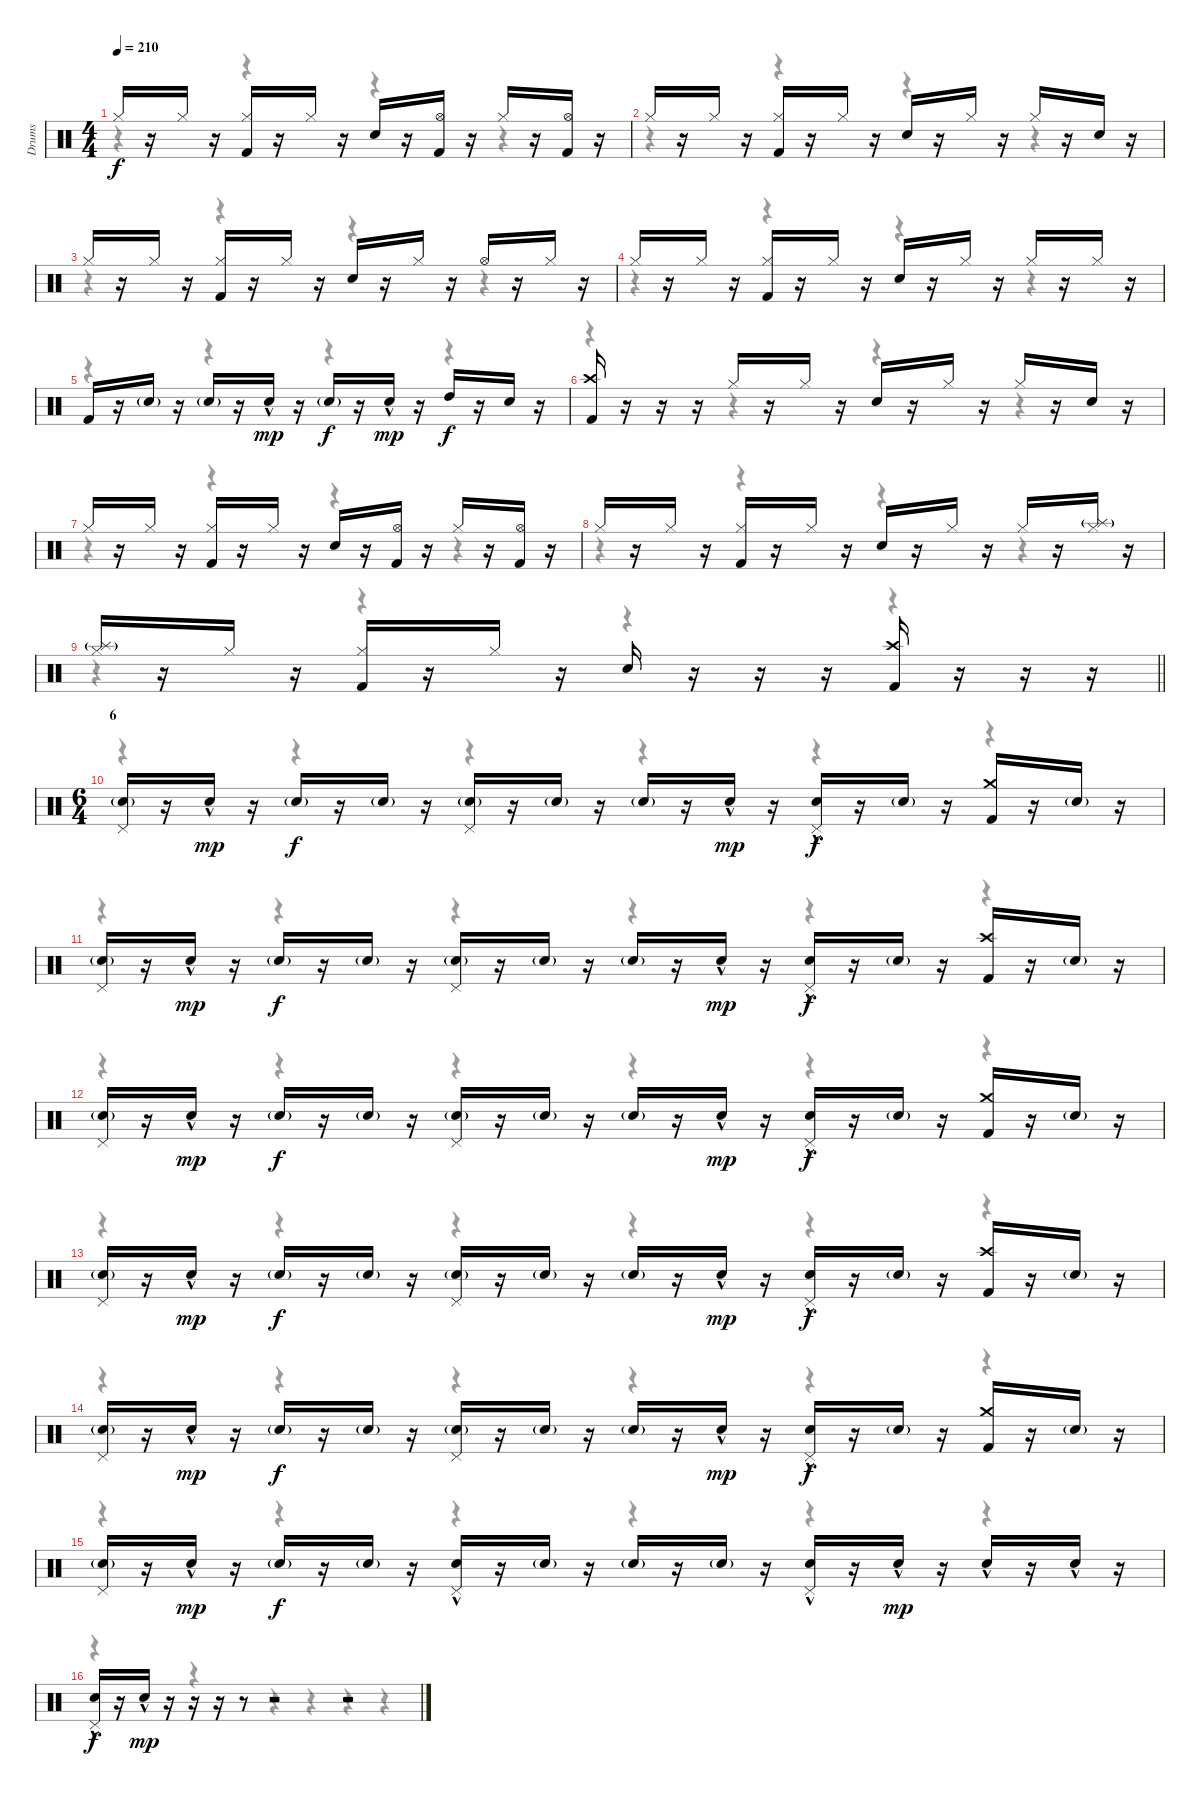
\track ("Drums" "Drums") {instrument percussion}
\staff {score}
\articulation defaults
\voice
\ts (4 4)
\tempo 210
\clef neutral
\ks c "Hi-Hat (closed)".16{dy f}
r.16 "Hi-Hat (closed)".16 r.16 ("Kick (hit) 2" "Hi-Hat (closed)").16 r.16 "Hi-Hat (closed)".16 r.16 "Snare (hit) 2".16 r.16 ("Kick (hit) 2" "Hi-Hat (open)").16 r.16 "Hi-Hat (closed)".16 r.16 ("Kick (hit) 2" "Hi-Hat (open)").16 r.16 |
"Hi-Hat (closed)".16 r.16 "Hi-Hat (closed)".16 r.16 ("Kick (hit) 2" "Hi-Hat (closed)").16 r.16 "Hi-Hat (closed)".16 r.16 "Snare (hit) 2".16 r.16 "Hi-Hat (closed)".16 r.16 "Hi-Hat (closed)".16 r.16 "Snare (hit) 2".16 r.16 |
"Hi-Hat (closed)".16 r.16 "Hi-Hat (closed)".16 r.16 ("Kick (hit) 2" "Hi-Hat (closed)").16 r.16 "Hi-Hat (closed)".16 r.16 "Snare (hit) 2".16 r.16 "Hi-Hat (closed)".16 r.16 "Hi-Hat (open)".16 r.16 "Hi-Hat (closed)".16 r.16 |
"Hi-Hat (closed)".16 r.16 "Hi-Hat (closed)".16 r.16 ("Kick (hit) 2" "Hi-Hat (closed)").16 r.16 "Hi-Hat (closed)".16 r.16 "Snare (hit) 2".16 r.16 "Hi-Hat (closed)".16 r.16 "Hi-Hat (closed)".16 r.16 "Hi-Hat (closed)".16 r.16 |
"Kick (hit) 2".16 r.16 "Snare (hit) 2"{g}.16 r.16 "Snare (hit) 2"{g}.16 r.16 "Snare (hit) 2"{hac}.16{dy mp} r.16 "Snare (hit) 2"{g}.16{dy f} r.16 "Snare (hit) 2"{hac}.16{dy mp} r.16 "High Tom (hit)".16{dy f} r.16 "Snare (hit) 2".16 r.16 |
("Kick (hit) 2" "Crash high (hit)").16 r.16 r.16 r.16 "Hi-Hat (closed)".16 r.16 "Hi-Hat (closed)".16 r.16 "Snare (hit) 2".16 r.16 "Hi-Hat (closed)".16 r.16 "Hi-Hat (closed)".16 r.16 "Snare (hit) 2".16 r.16 |
"Hi-Hat (closed)".16 r.16 "Hi-Hat (closed)".16 r.16 ("Kick (hit) 2" "Hi-Hat (closed)").16 r.16 "Hi-Hat (closed)".16 r.16 "Snare (hit) 2".16 r.16 ("Kick (hit) 2" "Hi-Hat (open)").16 r.16 "Hi-Hat (closed)".16 r.16 ("Kick (hit) 2" "Hi-Hat (open)").16 r.16 |
"Hi-Hat (closed)".16 r.16 "Hi-Hat (closed)".16 r.16 ("Kick (hit) 2" "Hi-Hat (closed)").16 r.16 "Hi-Hat (closed)".16 r.16 "Snare (hit) 2".16 r.16 "Hi-Hat (closed)".16 r.16 "Hi-Hat (closed)".16 r.16 ("Splash (hit)"{g} "Hi-Hat (closed)").16 r.16 |
\barLineRight lightlight
("Splash (hit)"{g} "Hi-Hat (closed)").16 r.16 "Hi-Hat (closed)".16 r.16 ("Kick (hit) 2" "Hi-Hat (closed)").16 r.16 "Hi-Hat (closed)".16 r.16 "Snare (hit) 2".16 r.16 r.16 r.16 ("Kick (hit) 2" "Crash high (hit)").16 r.16 r.16 r.16 |
\ts (6 4)
\section ("" "6")
("Snare (hit) 2"{g} "Pedal Hi-Hat (hit)").16 r.16 "Snare (hit) 2"{hac}.16{dy mp} r.16 "Snare (hit) 2"{g}.16{dy f} r.16 "Snare (hit) 2"{g}.16 r.16 ("Snare (hit) 2"{g} "Pedal Hi-Hat (hit)").16 r.16 "Snare (hit) 2"{g}.16 r.16 "Snare (hit) 2"{g}.16 r.16 "Snare (hit) 2"{hac}.16{dy mp} r.16 ("Snare (hit) 2"{hac} "Pedal Hi-Hat (hit)").16{dy f} r.16 "Snare (hit) 2"{g}.16 r.16 ("Kick (hit) 2" "Crash medium (hit)").16 r.16 "Snare (hit) 2"{g}.16 r.16 |
("Snare (hit) 2"{g} "Pedal Hi-Hat (hit)").16 r.16 "Snare (hit) 2"{hac}.16{dy mp} r.16 "Snare (hit) 2"{g}.16{dy f} r.16 "Snare (hit) 2"{g}.16 r.16 ("Snare (hit) 2"{g} "Pedal Hi-Hat (hit)").16 r.16 "Snare (hit) 2"{g}.16 r.16 "Snare (hit) 2"{g}.16 r.16 "Snare (hit) 2"{hac}.16{dy mp} r.16 ("Snare (hit) 2"{hac} "Pedal Hi-Hat (hit)").16{dy f} r.16 "Snare (hit) 2"{g}.16 r.16 ("Kick (hit) 2" "Crash high (hit)").16 r.16 "Snare (hit) 2"{g}.16 r.16 |
("Snare (hit) 2"{g} "Pedal Hi-Hat (hit)").16 r.16 "Snare (hit) 2"{hac}.16{dy mp} r.16 "Snare (hit) 2"{g}.16{dy f} r.16 "Snare (hit) 2"{g}.16 r.16 ("Snare (hit) 2"{g} "Pedal Hi-Hat (hit)").16 r.16 "Snare (hit) 2"{g}.16 r.16 "Snare (hit) 2"{g}.16 r.16 "Snare (hit) 2"{hac}.16{dy mp} r.16 ("Snare (hit) 2"{hac} "Pedal Hi-Hat (hit)").16{dy f} r.16 "Snare (hit) 2"{g}.16 r.16 ("Kick (hit) 2" "Crash medium (hit)").16 r.16 "Snare (hit) 2"{g}.16 r.16 |
("Snare (hit) 2"{g} "Pedal Hi-Hat (hit)").16 r.16 "Snare (hit) 2"{hac}.16{dy mp} r.16 "Snare (hit) 2"{g}.16{dy f} r.16 "Snare (hit) 2"{g}.16 r.16 ("Snare (hit) 2"{g} "Pedal Hi-Hat (hit)").16 r.16 "Snare (hit) 2"{g}.16 r.16 "Snare (hit) 2"{g}.16 r.16 "Snare (hit) 2"{hac}.16{dy mp} r.16 ("Snare (hit) 2"{hac} "Pedal Hi-Hat (hit)").16{dy f} r.16 "Snare (hit) 2"{g}.16 r.16 ("Kick (hit) 2" "Crash high (hit)").16 r.16 "Snare (hit) 2"{g}.16 r.16 |
("Snare (hit) 2"{g} "Pedal Hi-Hat (hit)").16 r.16 "Snare (hit) 2"{hac}.16{dy mp} r.16 "Snare (hit) 2"{g}.16{dy f} r.16 "Snare (hit) 2"{g}.16 r.16 ("Snare (hit) 2"{g} "Pedal Hi-Hat (hit)").16 r.16 "Snare (hit) 2"{g}.16 r.16 "Snare (hit) 2"{g}.16 r.16 "Snare (hit) 2"{hac}.16{dy mp} r.16 ("Snare (hit) 2"{hac} "Pedal Hi-Hat (hit)").16{dy f} r.16 "Snare (hit) 2"{g}.16 r.16 ("Kick (hit) 2" "Crash medium (hit)").16 r.16 "Snare (hit) 2"{g}.16 r.16 |
("Snare (hit) 2"{g} "Pedal Hi-Hat (hit)").16 r.16 "Snare (hit) 2"{hac}.16{dy mp} r.16 "Snare (hit) 2"{g}.16{dy f} r.16 "Snare (hit) 2"{g}.16 r.16 ("Snare (hit) 2"{hac} "Pedal Hi-Hat (hit)").16 r.16 "Snare (hit) 2"{g}.16 r.16 "Snare (hit) 2"{g}.16 r.16 "Snare (hit) 2"{g}.16 r.16 ("Snare (hit) 2"{hac} "Pedal Hi-Hat (hit)").16 r.16 "Snare (hit) 2"{hac}.16{dy mp} r.16 "Snare (hit) 2"{hac}.16 r.16 "Snare (hit) 2"{hac}.16 r.16 |
("Snare (hit) 2"{hac} "Pedal Hi-Hat (hit)").16{dy f} r.16 "Snare (hit) 2"{hac}.16{dy mp} r.16 r.16 r.16 r.8 r.2 r.2
\voice
\clef neutral
\ottava regular
\simile none
\ks c
r.4{dy mf} r.4 r.4 r.4 |
r.4 r.4 r.4 r.4 |
r.4 r.4 r.4 r.4 |
r.4 r.4 r.4 r.4 |
r.4 r.4 r.4 r.4 |
r.4 r.4 r.4 r.4 |
r.4 r.4 r.4 r.4 |
r.4 r.4 r.4 r.4 |
\barLineRight lightlight
r.4 r.4 r.4 r.4 |
r.4 r.4 r.4 r.4 r.4 r.4 |
r.4 r.4 r.4 r.4 r.4 r.4 |
r.4 r.4 r.4 r.4 r.4 r.4 |
r.4 r.4 r.4 r.4 r.4 r.4 |
r.4 r.4 r.4 r.4 r.4 r.4 |
r.4 r.4 r.4 r.4 r.4 r.4 |
r.4 r.4 r.4 r.4 r.4 r.4
